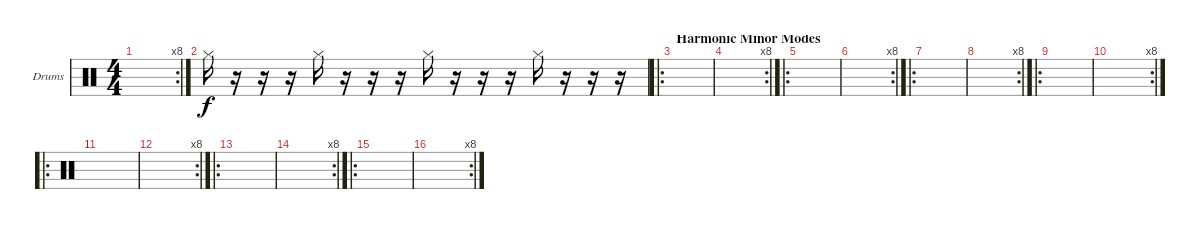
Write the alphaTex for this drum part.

\defaultSystemsLayout 4
\bracketExtendMode groupsimilarinstruments
\firstSystemTrackNameOrientation horizontal
\otherSystemsTrackNameOrientation horizontal
\track ("Drumkit" "Drums") {instrument percussion}
\staff {score}
\articulation defaults
\rc 8
\ts (4 4)
\tempo (125 hide)
\clef neutral
\scale
0.333333
\ks c
|
\scale
0.301587 "Hi-Hat (closed)".16 r.16 r.16 r.16 "Hi-Hat (closed)".16 r.16 r.16 r.16 "Hi-Hat (closed)".16 r.16 r.16 r.16 "Hi-Hat (closed)".16 r.16 r.16 r.16 |
\ro
\section ("" "Harmonic Minor Modes")
\scale
0.365079 |
\rc 8
\scale
0.323077 |
\ro
\scale
0.353846 |
\rc 8
\scale
0.323077 |
\ro
\scale
0.343284 |
\rc 8
\scale
0.313433 |
\ro
\scale
0.343284 |
\rc 8
\scale
0.323077 |
\ro
\scale
0.353846 |
\rc 8
\scale
0.323077 |
\ro
\scale
0.343284 |
\rc 8
\scale
0.313433 |
\ro
\scale
0.343284 |
\rc 8
\scale
0.333333
